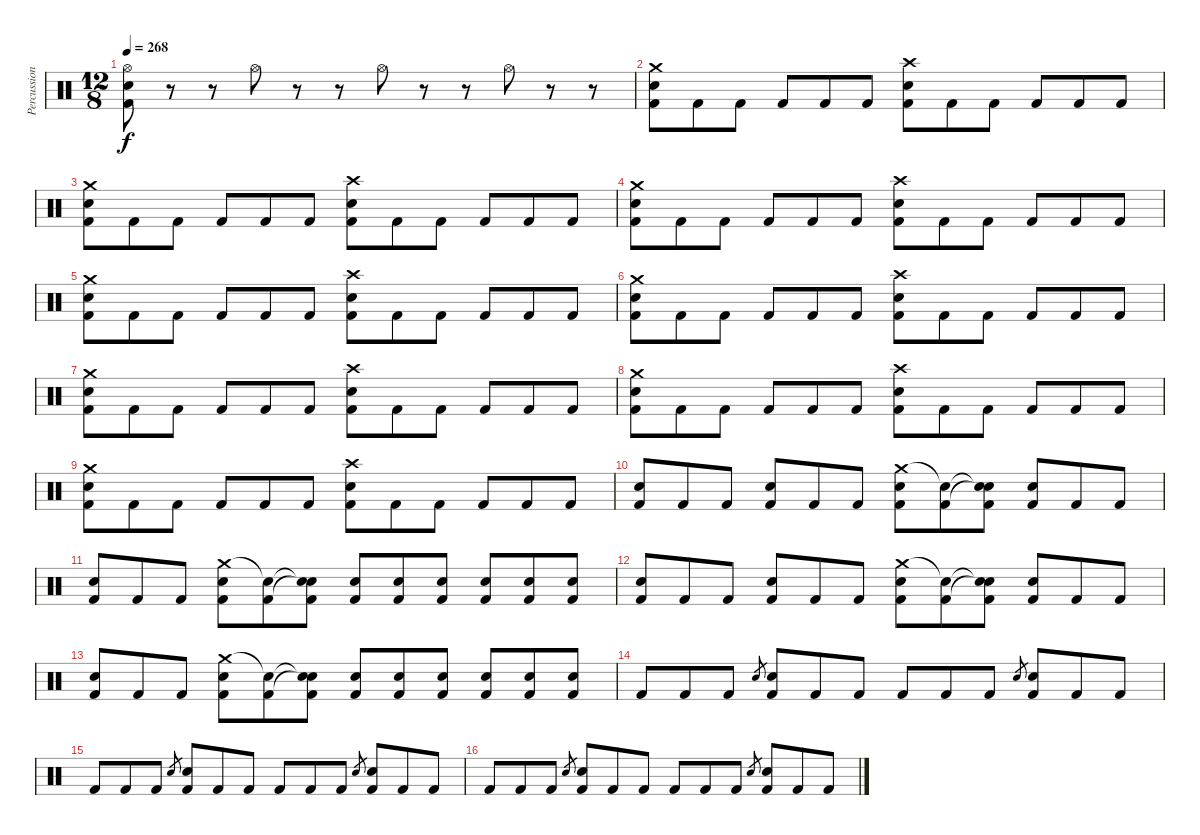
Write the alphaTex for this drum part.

\track ("Percussion" "Percussion") {instrument percussion}
\staff {score}
\articulation defaults
\ts (12 8)
\tempo 268
\clef neutral
\ks c
("Hi-Hat (open)" "Electric Snare (hit)" "Kick (hit) 2").8{dy f} r.8 r.8 "Hi-Hat (open)".8 r.8 r.8 "Hi-Hat (open)".8 r.8 r.8 "Hi-Hat (open)".8 r.8 r.8 |
("Crash medium (hit)" "Electric Snare (hit)" "Kick (hit) 2").8 "Kick (hit) 2".8 "Kick (hit) 2".8 "Kick (hit) 2".8 "Kick (hit) 2".8 "Kick (hit) 2".8 ("Crash high (hit)" "Electric Snare (hit)" "Kick (hit) 2").8 "Kick (hit) 2".8 "Kick (hit) 2".8 "Kick (hit) 2".8 "Kick (hit) 2".8 "Kick (hit) 2".8 |
("Crash medium (hit)" "Electric Snare (hit)" "Kick (hit) 2").8 "Kick (hit) 2".8 "Kick (hit) 2".8 "Kick (hit) 2".8 "Kick (hit) 2".8 "Kick (hit) 2".8 ("Crash high (hit)" "Electric Snare (hit)" "Kick (hit) 2").8 "Kick (hit) 2".8 "Kick (hit) 2".8 "Kick (hit) 2".8 "Kick (hit) 2".8 "Kick (hit) 2".8 |
("Crash medium (hit)" "Electric Snare (hit)" "Kick (hit) 2").8 "Kick (hit) 2".8 "Kick (hit) 2".8 "Kick (hit) 2".8 "Kick (hit) 2".8 "Kick (hit) 2".8 ("Crash high (hit)" "Electric Snare (hit)" "Kick (hit) 2").8 "Kick (hit) 2".8 "Kick (hit) 2".8 "Kick (hit) 2".8 "Kick (hit) 2".8 "Kick (hit) 2".8 |
("Crash medium (hit)" "Electric Snare (hit)" "Kick (hit) 2").8 "Kick (hit) 2".8 "Kick (hit) 2".8 "Kick (hit) 2".8 "Kick (hit) 2".8 "Kick (hit) 2".8 ("Crash high (hit)" "Electric Snare (hit)" "Kick (hit) 2").8 "Kick (hit) 2".8 "Kick (hit) 2".8 "Kick (hit) 2".8 "Kick (hit) 2".8 "Kick (hit) 2".8 |
("Crash medium (hit)" "Electric Snare (hit)" "Kick (hit) 2").8 "Kick (hit) 2".8 "Kick (hit) 2".8 "Kick (hit) 2".8 "Kick (hit) 2".8 "Kick (hit) 2".8 ("Crash high (hit)" "Electric Snare (hit)" "Kick (hit) 2").8 "Kick (hit) 2".8 "Kick (hit) 2".8 "Kick (hit) 2".8 "Kick (hit) 2".8 "Kick (hit) 2".8 |
("Crash medium (hit)" "Electric Snare (hit)" "Kick (hit) 2").8 "Kick (hit) 2".8 "Kick (hit) 2".8 "Kick (hit) 2".8 "Kick (hit) 2".8 "Kick (hit) 2".8 ("Crash high (hit)" "Electric Snare (hit)" "Kick (hit) 2").8 "Kick (hit) 2".8 "Kick (hit) 2".8 "Kick (hit) 2".8 "Kick (hit) 2".8 "Kick (hit) 2".8 |
("Crash medium (hit)" "Electric Snare (hit)" "Kick (hit) 2").8 "Kick (hit) 2".8 "Kick (hit) 2".8 "Kick (hit) 2".8 "Kick (hit) 2".8 "Kick (hit) 2".8 ("Crash high (hit)" "Electric Snare (hit)" "Kick (hit) 2").8 "Kick (hit) 2".8 "Kick (hit) 2".8 "Kick (hit) 2".8 "Kick (hit) 2".8 "Kick (hit) 2".8 |
("Crash medium (hit)" "Electric Snare (hit)" "Kick (hit) 2").8 "Kick (hit) 2".8 "Kick (hit) 2".8 "Kick (hit) 2".8 "Kick (hit) 2".8 "Kick (hit) 2".8 ("Crash high (hit)" "Electric Snare (hit)" "Kick (hit) 2").8 "Kick (hit) 2".8 "Kick (hit) 2".8 "Kick (hit) 2".8 "Kick (hit) 2".8 "Kick (hit) 2".8 |
("Electric Snare (hit)" "Kick (hit) 2").8 "Kick (hit) 2".8 "Kick (hit) 2".8 ("Electric Snare (hit)" "Kick (hit) 2").8 "Kick (hit) 2".8 "Kick (hit) 2".8 ("Crash medium (hit)" "Electric Snare (hit)" "Kick (hit) 2").8 ("Snare (hit)"{t} "Kick (hit) 2").8 ("Snare (hit)"{t} "Snare (hit)"{t} "Kick (hit) 2").8 ("Electric Snare (hit)" "Kick (hit) 2").8 "Kick (hit) 2".8 "Kick (hit) 2".8 |
("Electric Snare (hit)" "Kick (hit) 2").8 "Kick (hit) 2".8 "Kick (hit) 2".8 ("Crash medium (hit)" "Electric Snare (hit)" "Kick (hit) 2").8 ("Snare (hit)"{t} "Kick (hit) 2").8 ("Snare (hit)"{t} "Snare (hit)"{t} "Kick (hit) 2").8 ("Electric Snare (hit)" "Kick (hit) 2").8 ("Electric Snare (hit)" "Kick (hit) 2").8 ("Electric Snare (hit)" "Kick (hit) 2").8 ("Electric Snare (hit)" "Kick (hit) 2").8 ("Electric Snare (hit)" "Kick (hit) 2").8 ("Electric Snare (hit)" "Kick (hit) 2").8 |
("Electric Snare (hit)" "Kick (hit) 2").8 "Kick (hit) 2".8 "Kick (hit) 2".8 ("Electric Snare (hit)" "Kick (hit) 2").8 "Kick (hit) 2".8 "Kick (hit) 2".8 ("Crash medium (hit)" "Electric Snare (hit)" "Kick (hit) 2").8 ("Snare (hit)"{t} "Kick (hit) 2").8 ("Snare (hit)"{t} "Snare (hit)"{t} "Kick (hit) 2").8 ("Electric Snare (hit)" "Kick (hit) 2").8 "Kick (hit) 2".8 "Kick (hit) 2".8 |
("Electric Snare (hit)" "Kick (hit) 2").8 "Kick (hit) 2".8 "Kick (hit) 2".8 ("Crash medium (hit)" "Electric Snare (hit)" "Kick (hit) 2").8 ("Snare (hit)"{t} "Kick (hit) 2").8 ("Snare (hit)"{t} "Snare (hit)"{t} "Kick (hit) 2").8 ("Electric Snare (hit)" "Kick (hit) 2").8 ("Electric Snare (hit)" "Kick (hit) 2").8 ("Electric Snare (hit)" "Kick (hit) 2").8 ("Electric Snare (hit)" "Kick (hit) 2").8 ("Electric Snare (hit)" "Kick (hit) 2").8 ("Electric Snare (hit)" "Kick (hit) 2").8 |
"Kick (hit) 2".8 "Kick (hit) 2".8 "Kick (hit) 2".8 "Electric Snare (hit)".8{gr} ("Electric Snare (hit)" "Kick (hit) 2").8 "Kick (hit) 2".8 "Kick (hit) 2".8 "Kick (hit) 2".8 "Kick (hit) 2".8 "Kick (hit) 2".8 "Electric Snare (hit)".8{gr} ("Electric Snare (hit)" "Kick (hit) 2").8 "Kick (hit) 2".8 "Kick (hit) 2".8 |
"Kick (hit) 2".8 "Kick (hit) 2".8 "Kick (hit) 2".8 "Electric Snare (hit)".8{gr} ("Electric Snare (hit)" "Kick (hit) 2").8 "Kick (hit) 2".8 "Kick (hit) 2".8 "Kick (hit) 2".8 "Kick (hit) 2".8 "Kick (hit) 2".8 "Electric Snare (hit)".8{gr} ("Electric Snare (hit)" "Kick (hit) 2").8 "Kick (hit) 2".8 "Kick (hit) 2".8 |
"Kick (hit) 2".8 "Kick (hit) 2".8 "Kick (hit) 2".8 "Electric Snare (hit)".8{gr} ("Electric Snare (hit)" "Kick (hit) 2").8 "Kick (hit) 2".8 "Kick (hit) 2".8 "Kick (hit) 2".8 "Kick (hit) 2".8 "Kick (hit) 2".8 "Electric Snare (hit)".8{gr} ("Electric Snare (hit)" "Kick (hit) 2").8 "Kick (hit) 2".8 "Kick (hit) 2".8
